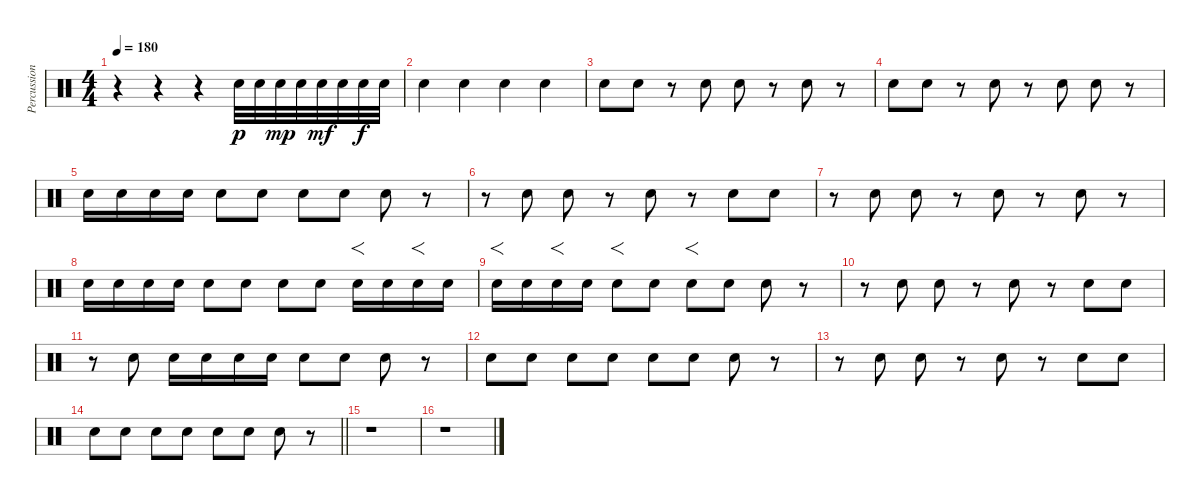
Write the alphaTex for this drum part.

\track ("Percussions" "Percussion") {instrument percussion}
\staff {score}
\articulation defaults
\ts (4 4)
\tempo 180
\clef neutral
\ks c
r.4{dy p} r.4 r.4 "Electric Snare (hit)".32 "Electric Snare (hit)".32 "Electric Snare (hit)".32{dy mp} "Electric Snare (hit)".32 "Electric Snare (hit)".32{dy mf} "Electric Snare (hit)".32 "Electric Snare (hit)".32{dy f} "Electric Snare (hit)".32 |
"Electric Snare (hit)".4 "Electric Snare (hit)".4 "Electric Snare (hit)".4 "Electric Snare (hit)".4 |
"Electric Snare (hit)".8 "Electric Snare (hit)".8 r.8 "Electric Snare (hit)".8 "Electric Snare (hit)".8 r.8 "Electric Snare (hit)".8 r.8 |
"Electric Snare (hit)".8 "Electric Snare (hit)".8 r.8 "Electric Snare (hit)".8 r.8 "Electric Snare (hit)".8 "Electric Snare (hit)".8 r.8 |
"Electric Snare (hit)".16 "Electric Snare (hit)".16 "Electric Snare (hit)".16 "Electric Snare (hit)".16 "Electric Snare (hit)".8 "Electric Snare (hit)".8 "Electric Snare (hit)".8 "Electric Snare (hit)".8 "Electric Snare (hit)".8 r.8 |
r.8 "Electric Snare (hit)".8 "Electric Snare (hit)".8 r.8 "Electric Snare (hit)".8 r.8 "Electric Snare (hit)".8 "Electric Snare (hit)".8 |
r.8 "Electric Snare (hit)".8 "Electric Snare (hit)".8 r.8 "Electric Snare (hit)".8 r.8 "Electric Snare (hit)".8 r.8 |
"Electric Snare (hit)".16 "Electric Snare (hit)".16 "Electric Snare (hit)".16 "Electric Snare (hit)".16 "Electric Snare (hit)".8 "Electric Snare (hit)".8 "Electric Snare (hit)".8 "Electric Snare (hit)".8 "Electric Snare (hit)".16{f} "Electric Snare (hit)".16 "Electric Snare (hit)".16{f} "Electric Snare (hit)".16 |
"Electric Snare (hit)".16{f} "Electric Snare (hit)".16 "Electric Snare (hit)".16{f} "Electric Snare (hit)".16 "Electric Snare (hit)".8{f} "Electric Snare (hit)".8 "Electric Snare (hit)".8{f} "Electric Snare (hit)".8 "Electric Snare (hit)".8 r.8 |
r.8 "Electric Snare (hit)".8 "Electric Snare (hit)".8 r.8 "Electric Snare (hit)".8 r.8 "Electric Snare (hit)".8 "Electric Snare (hit)".8 |
r.8 "Electric Snare (hit)".8 "Electric Snare (hit)".16 "Electric Snare (hit)".16 "Electric Snare (hit)".16 "Electric Snare (hit)".16 "Electric Snare (hit)".8 "Electric Snare (hit)".8 "Electric Snare (hit)".8 r.8 |
"Electric Snare (hit)".8 "Electric Snare (hit)".8 "Electric Snare (hit)".8 "Electric Snare (hit)".8 "Electric Snare (hit)".8 "Electric Snare (hit)".8 "Electric Snare (hit)".8 r.8 |
r.8 "Electric Snare (hit)".8 "Electric Snare (hit)".8 r.8 "Electric Snare (hit)".8 r.8 "Electric Snare (hit)".8 "Electric Snare (hit)".8 |
\barLineRight lightlight "Electric Snare (hit)".8 "Electric Snare (hit)".8 "Electric Snare (hit)".8 "Electric Snare (hit)".8 "Electric Snare (hit)".8 "Electric Snare (hit)".8 "Electric Snare (hit)".8
r.8 |
r.1 |
r.1
